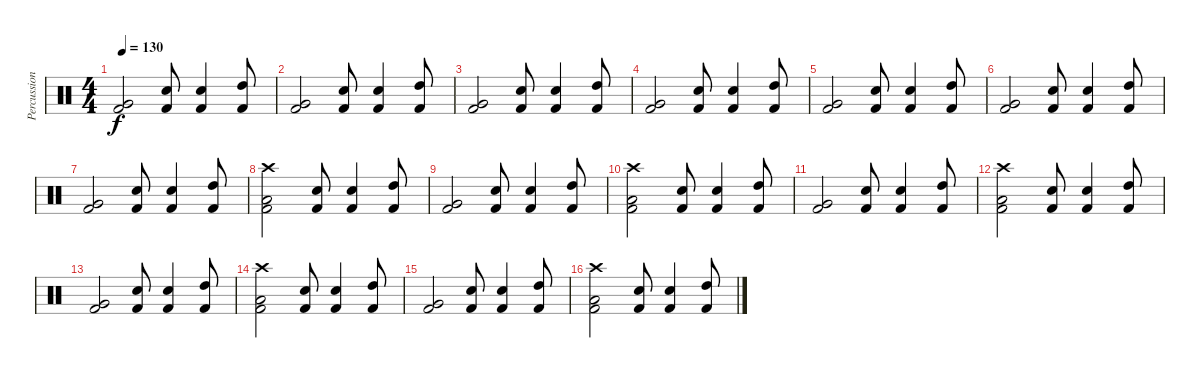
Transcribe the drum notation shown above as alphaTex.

\track ("Percussioni" "Percussion") {instrument percussion}
\staff {score}
\articulation defaults
\ts (4 4)
\tempo 130
\clef neutral
\ks c
("Kick (hit) 2" "Very Low Tom (hit)").2{dy f} ("Snare (hit) 2" "Kick (hit) 2").8 ("Snare (hit) 2" "Kick (hit) 2").4 ("High Tom (hit)" "Kick (hit) 2").8 |
("Very Low Tom (hit)" "Kick (hit) 2").2 ("Snare (hit) 2" "Kick (hit) 2").8 ("Snare (hit) 2" "Kick (hit) 2").4 ("High Tom (hit)" "Kick (hit) 2").8 |
("Kick (hit) 2" "Very Low Tom (hit)").2 ("Snare (hit) 2" "Kick (hit) 2").8 ("Snare (hit) 2" "Kick (hit) 2").4 ("High Tom (hit)" "Kick (hit) 2").8 |
("Very Low Tom (hit)" "Kick (hit) 2").2 ("Snare (hit) 2" "Kick (hit) 2").8 ("Snare (hit) 2" "Kick (hit) 2").4 ("High Tom (hit)" "Kick (hit) 2").8 |
("Kick (hit) 2" "Very Low Tom (hit)").2 ("Snare (hit) 2" "Kick (hit) 2").8 ("Snare (hit) 2" "Kick (hit) 2").4 ("High Tom (hit)" "Kick (hit) 2").8 |
("Very Low Tom (hit)" "Kick (hit) 2").2 ("Snare (hit) 2" "Kick (hit) 2").8 ("Snare (hit) 2" "Kick (hit) 2").4 ("High Tom (hit)" "Kick (hit) 2").8 |
("Kick (hit) 2" "Very Low Tom (hit)").2 ("Snare (hit) 2" "Kick (hit) 2").8 ("Snare (hit) 2" "Kick (hit) 2").4 ("High Tom (hit)" "Kick (hit) 2").8 |
("Kick (hit) 2" "Low Tom (hit)" "Crash high (hit)").2 ("Snare (hit) 2" "Kick (hit) 2").8 ("Snare (hit) 2" "Kick (hit) 2").4 ("High Tom (hit)" "Kick (hit) 2").8 |
("Kick (hit) 2" "Very Low Tom (hit)").2 ("Snare (hit) 2" "Kick (hit) 2").8 ("Snare (hit) 2" "Kick (hit) 2").4 ("High Tom (hit)" "Kick (hit) 2").8 |
("Kick (hit) 2" "Low Tom (hit)" "Crash high (hit)").2 ("Snare (hit) 2" "Kick (hit) 2").8 ("Snare (hit) 2" "Kick (hit) 2").4 ("High Tom (hit)" "Kick (hit) 2").8 |
("Kick (hit) 2" "Very Low Tom (hit)").2 ("Snare (hit) 2" "Kick (hit) 2").8 ("Snare (hit) 2" "Kick (hit) 2").4 ("High Tom (hit)" "Kick (hit) 2").8 |
("Kick (hit) 2" "Low Tom (hit)" "Crash high (hit)").2 ("Snare (hit) 2" "Kick (hit) 2").8 ("Snare (hit) 2" "Kick (hit) 2").4 ("High Tom (hit)" "Kick (hit) 2").8 |
("Kick (hit) 2" "Very Low Tom (hit)").2 ("Snare (hit) 2" "Kick (hit) 2").8 ("Snare (hit) 2" "Kick (hit) 2").4 ("High Tom (hit)" "Kick (hit) 2").8 |
("Kick (hit) 2" "Low Tom (hit)" "Crash high (hit)").2 ("Snare (hit) 2" "Kick (hit) 2").8 ("Snare (hit) 2" "Kick (hit) 2").4 ("High Tom (hit)" "Kick (hit) 2").8 |
("Kick (hit) 2" "Very Low Tom (hit)").2 ("Snare (hit) 2" "Kick (hit) 2").8 ("Snare (hit) 2" "Kick (hit) 2").4 ("High Tom (hit)" "Kick (hit) 2").8 |
("Kick (hit) 2" "Low Tom (hit)" "Crash high (hit)").2 ("Snare (hit) 2" "Kick (hit) 2").8 ("Snare (hit) 2" "Kick (hit) 2").4 ("High Tom (hit)" "Kick (hit) 2").8
